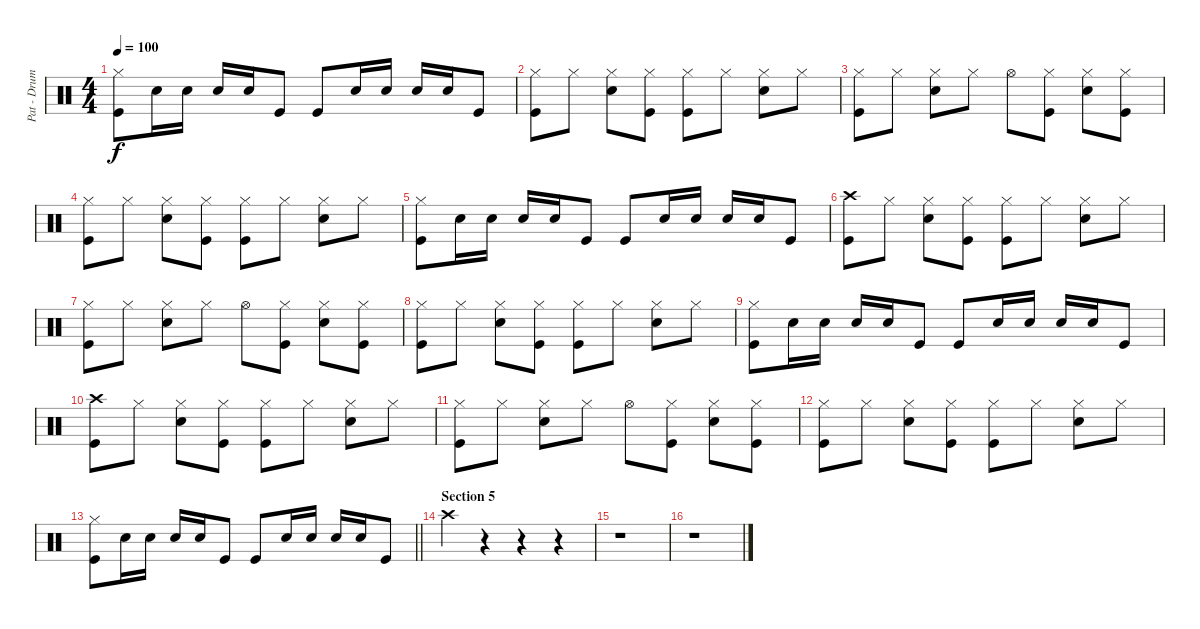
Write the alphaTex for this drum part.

\track ("Pat - Drums" "Pat - Drum") {instrument percussion}
\staff {score}
\articulation defaults
\ts (4 4)
\tempo 100
\clef neutral
\ks c
("Hi-Hat (closed)" "Kick (hit)").8{dy f} "Electric Snare (hit)".16 "Electric Snare (hit)".16 "Electric Snare (hit)".16 "Electric Snare (hit)".16 "Kick (hit)".8 "Kick (hit)".8 "Electric Snare (hit)".16 "Electric Snare (hit)".16 "Electric Snare (hit)".16 "Electric Snare (hit)".16 "Kick (hit)".8 |
("Hi-Hat (closed)" "Kick (hit)").8 "Hi-Hat (closed)".8 ("Hi-Hat (closed)" "Electric Snare (hit)").8 ("Hi-Hat (closed)" "Kick (hit)").8 ("Hi-Hat (closed)" "Kick (hit)").8 "Hi-Hat (closed)".8 ("Hi-Hat (closed)" "Electric Snare (hit)").8 "Hi-Hat (closed)".8 |
("Hi-Hat (closed)" "Kick (hit)").8 "Hi-Hat (closed)".8 ("Hi-Hat (closed)" "Electric Snare (hit)").8 "Hi-Hat (closed)".8 "Hi-Hat (open)".8 ("Hi-Hat (closed)" "Kick (hit)").8 ("Hi-Hat (closed)" "Electric Snare (hit)").8 ("Hi-Hat (closed)" "Kick (hit)").8 |
("Hi-Hat (closed)" "Kick (hit)").8 "Hi-Hat (closed)".8 ("Hi-Hat (closed)" "Electric Snare (hit)").8 ("Hi-Hat (closed)" "Kick (hit)").8 ("Hi-Hat (closed)" "Kick (hit)").8 "Hi-Hat (closed)".8 ("Hi-Hat (closed)" "Electric Snare (hit)").8 "Hi-Hat (closed)".8 |
("Hi-Hat (closed)" "Kick (hit)").8 "Electric Snare (hit)".16 "Electric Snare (hit)".16 "Electric Snare (hit)".16 "Electric Snare (hit)".16 "Kick (hit)".8 "Kick (hit)".8 "Electric Snare (hit)".16 "Electric Snare (hit)".16 "Electric Snare (hit)".16 "Electric Snare (hit)".16 "Kick (hit)".8 |
("Crash high (hit)" "Kick (hit)").8 "Hi-Hat (closed)".8 ("Hi-Hat (closed)" "Electric Snare (hit)").8 ("Hi-Hat (closed)" "Kick (hit)").8 ("Hi-Hat (closed)" "Kick (hit)").8 "Hi-Hat (closed)".8 ("Hi-Hat (closed)" "Electric Snare (hit)").8 "Hi-Hat (closed)".8 |
("Hi-Hat (closed)" "Kick (hit)").8 "Hi-Hat (closed)".8 ("Hi-Hat (closed)" "Electric Snare (hit)").8 "Hi-Hat (closed)".8 "Hi-Hat (open)".8 ("Hi-Hat (closed)" "Kick (hit)").8 ("Hi-Hat (closed)" "Electric Snare (hit)").8 ("Hi-Hat (closed)" "Kick (hit)").8 |
("Hi-Hat (closed)" "Kick (hit)").8 "Hi-Hat (closed)".8 ("Hi-Hat (closed)" "Electric Snare (hit)").8 ("Hi-Hat (closed)" "Kick (hit)").8 ("Hi-Hat (closed)" "Kick (hit)").8 "Hi-Hat (closed)".8 ("Hi-Hat (closed)" "Electric Snare (hit)").8 "Hi-Hat (closed)".8 |
("Hi-Hat (closed)" "Kick (hit)").8 "Electric Snare (hit)".16 "Electric Snare (hit)".16 "Electric Snare (hit)".16 "Electric Snare (hit)".16 "Kick (hit)".8 "Kick (hit)".8 "Electric Snare (hit)".16 "Electric Snare (hit)".16 "Electric Snare (hit)".16 "Electric Snare (hit)".16 "Kick (hit)".8 |
("Crash high (hit)" "Kick (hit)").8 "Hi-Hat (closed)".8 ("Hi-Hat (closed)" "Electric Snare (hit)").8 ("Hi-Hat (closed)" "Kick (hit)").8 ("Hi-Hat (closed)" "Kick (hit)").8 "Hi-Hat (closed)".8 ("Hi-Hat (closed)" "Electric Snare (hit)").8 "Hi-Hat (closed)".8 |
("Hi-Hat (closed)" "Kick (hit)").8 "Hi-Hat (closed)".8 ("Hi-Hat (closed)" "Electric Snare (hit)").8 "Hi-Hat (closed)".8 "Hi-Hat (open)".8 ("Hi-Hat (closed)" "Kick (hit)").8 ("Hi-Hat (closed)" "Electric Snare (hit)").8 ("Hi-Hat (closed)" "Kick (hit)").8 |
("Hi-Hat (closed)" "Kick (hit)").8 "Hi-Hat (closed)".8 ("Hi-Hat (closed)" "Electric Snare (hit)").8 ("Hi-Hat (closed)" "Kick (hit)").8 ("Hi-Hat (closed)" "Kick (hit)").8 "Hi-Hat (closed)".8 ("Hi-Hat (closed)" "Electric Snare (hit)").8 "Hi-Hat (closed)".8 |
\barLineRight lightlight
("Hi-Hat (closed)" "Kick (hit)").8 "Electric Snare (hit)".16 "Electric Snare (hit)".16 "Electric Snare (hit)".16 "Electric Snare (hit)".16 "Kick (hit)".8 "Kick (hit)".8 "Electric Snare (hit)".16 "Electric Snare (hit)".16 "Electric Snare (hit)".16 "Electric Snare (hit)".16 "Kick (hit)".8 |
\section ("" "Section 5")
"Crash high (hit)".4 r.4 r.4 r.4 |
r.1 |
r.1
